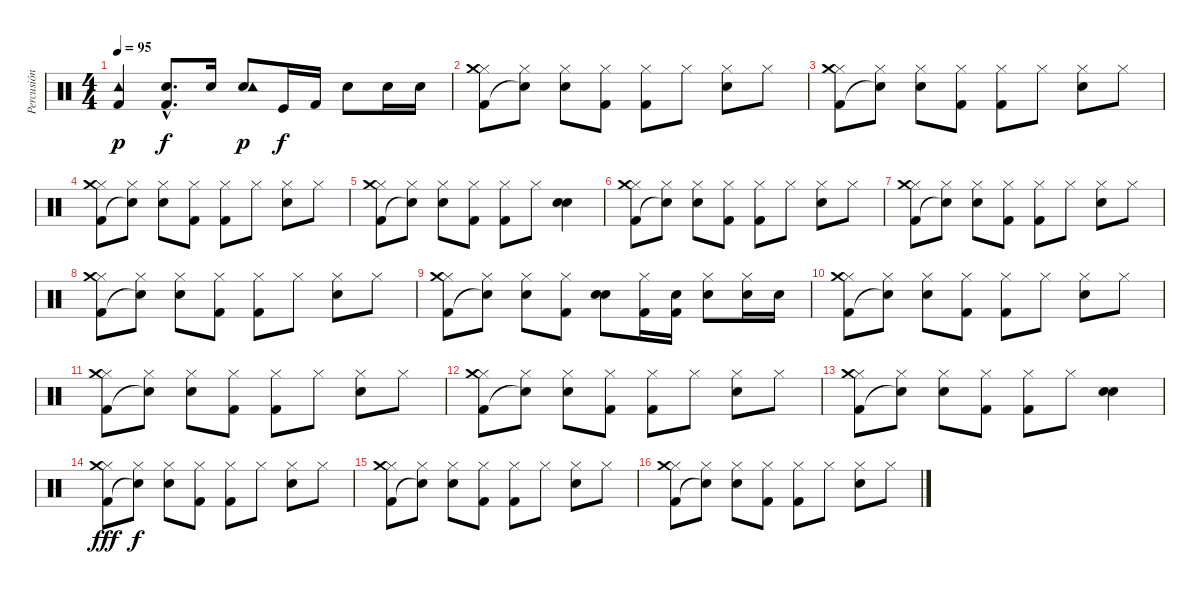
\track ("Percusión" "Percusión") {instrument percussion}
\staff {score}
\articulation defaults
\ts (4 4)
\tempo 95
\clef neutral
\ks c
("Kick (hit) 2" "Tambourine (hit)").4{dy p} ("Kick (hit) 2"{hac} "Snare (hit) 2"{hac}).8{d dy f} "Snare (hit) 2".16{balance 10} ("Snare (hit) 2" "Tambourine (hit)").8{dy p balance 8} "Kick (hit)".16{dy f balance 6} "Kick (hit) 2".16{balance 10} "Snare (hit) 2".8{balance 8} "Snare (hit) 2".16 "Snare (hit) 2".16 |
("Hi-Hat (closed)" "Kick (hit) 2" "Crash medium (hit)").8 ("Hi-Hat (closed)" "Snare (hit)"{t}).8 ("Hi-Hat (closed)" "Snare (hit) 2").8 ("Hi-Hat (closed)" "Kick (hit) 2").8 ("Hi-Hat (closed)" "Kick (hit) 2").8 "Hi-Hat (closed)".8 ("Hi-Hat (closed)" "Snare (hit) 2").8 "Hi-Hat (closed)".8 |
("Hi-Hat (closed)" "Kick (hit) 2" "Crash medium (hit)").8 ("Hi-Hat (closed)" "Snare (hit)"{t}).8 ("Hi-Hat (closed)" "Snare (hit) 2").8 ("Hi-Hat (closed)" "Kick (hit) 2").8 ("Hi-Hat (closed)" "Kick (hit) 2").8 "Hi-Hat (closed)".8 ("Hi-Hat (closed)" "Snare (hit) 2").8 "Hi-Hat (closed)".8 |
("Hi-Hat (closed)" "Kick (hit) 2" "Crash medium (hit)").8 ("Hi-Hat (closed)" "Snare (hit)"{t}).8 ("Hi-Hat (closed)" "Snare (hit) 2").8 ("Hi-Hat (closed)" "Kick (hit) 2").8 ("Hi-Hat (closed)" "Kick (hit) 2").8 "Hi-Hat (closed)".8 ("Snare (hit) 2" "Hi-Hat (closed)").8 "Hi-Hat (closed)".8 |
("Hi-Hat (closed)" "Kick (hit) 2" "Crash medium (hit)").8 ("Hi-Hat (closed)" "Snare (hit)"{t}).8 ("Hi-Hat (closed)" "Snare (hit) 2").8 ("Hi-Hat (closed)" "Kick (hit) 2").8 ("Hi-Hat (closed)" "Kick (hit) 2").8 "Hi-Hat (closed)".8 ("Snare (hit) 2" "Snare (hit) 2").4{bd 240} |
("Hi-Hat (closed)" "Kick (hit) 2" "Crash medium (hit)").8 ("Hi-Hat (closed)" "Snare (hit)"{t}).8 ("Hi-Hat (closed)" "Snare (hit) 2").8 ("Hi-Hat (closed)" "Kick (hit) 2").8 ("Hi-Hat (closed)" "Kick (hit) 2").8 "Hi-Hat (closed)".8 ("Hi-Hat (closed)" "Snare (hit) 2").8 "Hi-Hat (closed)".8 |
("Hi-Hat (closed)" "Kick (hit) 2" "Crash medium (hit)").8 ("Hi-Hat (closed)" "Snare (hit)"{t}).8 ("Hi-Hat (closed)" "Snare (hit) 2").8 ("Hi-Hat (closed)" "Kick (hit) 2").8 ("Hi-Hat (closed)" "Kick (hit) 2").8 "Hi-Hat (closed)".8 ("Hi-Hat (closed)" "Snare (hit) 2").8 "Hi-Hat (closed)".8 |
("Hi-Hat (closed)" "Kick (hit) 2" "Crash medium (hit)").8 ("Hi-Hat (closed)" "Snare (hit)"{t}).8 ("Hi-Hat (closed)" "Snare (hit) 2").8 ("Hi-Hat (closed)" "Kick (hit) 2").8 ("Hi-Hat (closed)" "Kick (hit) 2").8 "Hi-Hat (closed)".8 ("Hi-Hat (closed)" "Snare (hit) 2").8 "Hi-Hat (closed)".8 |
("Hi-Hat (closed)" "Kick (hit) 2" "Crash medium (hit)").8 ("Hi-Hat (closed)" "Snare (hit)"{t}).8 ("Hi-Hat (closed)" "Snare (hit) 2").8 ("Hi-Hat (closed)" "Kick (hit) 2").8 ("Snare (hit) 2" "Snare (hit) 2").8{bd 240} ("Hi-Hat (closed)" "Kick (hit) 2").16 ("Kick (hit) 2" "Snare (hit) 2").16 ("Snare (hit) 2" "Hi-Hat (closed)").8 ("Snare (hit) 2" "Hi-Hat (closed)").16 "Snare (hit) 2".16 |
("Hi-Hat (closed)" "Kick (hit) 2" "Crash medium (hit)").8 ("Hi-Hat (closed)" "Snare (hit)"{t}).8 ("Hi-Hat (closed)" "Snare (hit) 2").8 ("Hi-Hat (closed)" "Kick (hit) 2").8 ("Hi-Hat (closed)" "Kick (hit) 2").8 "Hi-Hat (closed)".8 ("Hi-Hat (closed)" "Snare (hit) 2").8 "Hi-Hat (closed)".8 |
("Hi-Hat (closed)" "Kick (hit) 2" "Crash medium (hit)").8 ("Hi-Hat (closed)" "Snare (hit)"{t}).8 ("Hi-Hat (closed)" "Snare (hit) 2").8 ("Hi-Hat (closed)" "Kick (hit) 2").8 ("Hi-Hat (closed)" "Kick (hit) 2").8 "Hi-Hat (closed)".8 ("Hi-Hat (closed)" "Snare (hit) 2").8 "Hi-Hat (closed)".8 |
("Hi-Hat (closed)" "Kick (hit) 2" "Crash medium (hit)").8 ("Hi-Hat (closed)" "Snare (hit)"{t}).8 ("Hi-Hat (closed)" "Snare (hit) 2").8 ("Hi-Hat (closed)" "Kick (hit) 2").8 ("Hi-Hat (closed)" "Kick (hit) 2").8 "Hi-Hat (closed)".8 ("Hi-Hat (closed)" "Snare (hit) 2").8 "Hi-Hat (closed)".8 |
("Hi-Hat (closed)" "Kick (hit) 2" "Crash medium (hit)").8 ("Hi-Hat (closed)" "Snare (hit)"{t}).8 ("Hi-Hat (closed)" "Snare (hit) 2").8 ("Hi-Hat (closed)" "Kick (hit) 2").8 ("Hi-Hat (closed)" "Kick (hit) 2").8 "Hi-Hat (closed)".8 ("Snare (hit) 2" "Snare (hit) 2").4{bd 240} |
("Hi-Hat (closed)" "Kick (hit) 2" "Crash medium (hit)").8{dy fff} ("Hi-Hat (closed)" "Snare (hit)"{t}).8{dy f} ("Hi-Hat (closed)" "Snare (hit) 2").8 ("Hi-Hat (closed)" "Kick (hit) 2").8 ("Hi-Hat (closed)" "Kick (hit) 2").8 "Hi-Hat (closed)".8 ("Hi-Hat (closed)" "Snare (hit) 2").8 "Hi-Hat (closed)".8 |
("Hi-Hat (closed)" "Kick (hit) 2" "Crash medium (hit)").8 ("Hi-Hat (closed)" "Snare (hit)"{t}).8 ("Hi-Hat (closed)" "Snare (hit) 2").8 ("Hi-Hat (closed)" "Kick (hit) 2").8 ("Hi-Hat (closed)" "Kick (hit) 2").8 "Hi-Hat (closed)".8 ("Hi-Hat (closed)" "Snare (hit) 2").8 "Hi-Hat (closed)".8 |
("Hi-Hat (closed)" "Kick (hit) 2" "Crash medium (hit)").8 ("Hi-Hat (closed)" "Snare (hit)"{t}).8 ("Hi-Hat (closed)" "Snare (hit) 2").8 ("Hi-Hat (closed)" "Kick (hit) 2").8 ("Hi-Hat (closed)" "Kick (hit) 2").8 "Hi-Hat (closed)".8 ("Hi-Hat (closed)" "Snare (hit) 2").8 "Hi-Hat (closed)".8
